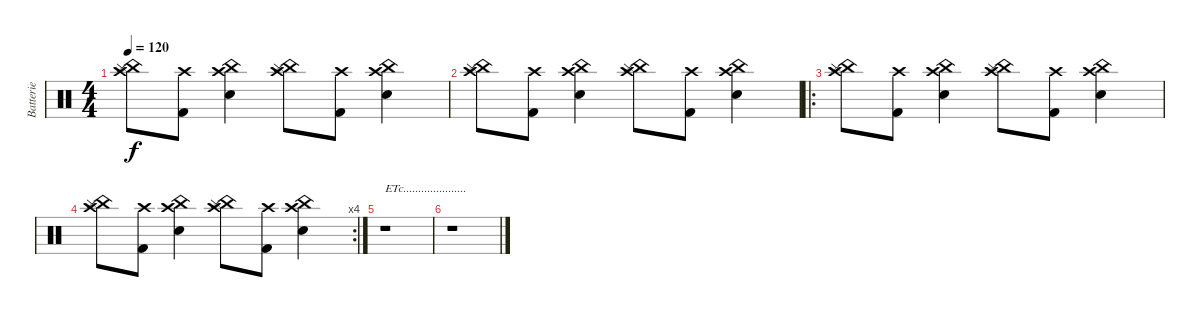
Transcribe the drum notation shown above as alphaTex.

\track ("Batterie" "Batterie") {instrument percussion}
\staff {score}
\articulation defaults
\ts (4 4)
\tempo 120
\clef neutral
\ks c
("China (hit)" "Crash high (hit)" "Cymbal (hit)").8{dy f} ("Crash high (hit)" "Kick (hit) 2").8 ("China (hit)" "Crash high (hit)" "Electric Snare (hit)").4 ("China (hit)" "Crash high (hit)" "Cymbal (hit)").8 ("Crash high (hit)" "Kick (hit) 2").8 ("China (hit)" "Crash high (hit)" "Electric Snare (hit)").4 |
("China (hit)" "Crash high (hit)" "Cymbal (hit)").8 ("Crash high (hit)" "Kick (hit) 2").8 ("China (hit)" "Crash high (hit)" "Electric Snare (hit)").4 ("China (hit)" "Crash high (hit)" "Cymbal (hit)").8 ("Crash high (hit)" "Kick (hit) 2").8 ("China (hit)" "Crash high (hit)" "Electric Snare (hit)").4 |
\ro
("China (hit)" "Crash high (hit)" "Cymbal (hit)").8 ("Crash high (hit)" "Kick (hit) 2").8 ("China (hit)" "Crash high (hit)" "Electric Snare (hit)").4 ("China (hit)" "Crash high (hit)" "Cymbal (hit)").8 ("Crash high (hit)" "Kick (hit) 2").8 ("China (hit)" "Crash high (hit)" "Electric Snare (hit)").4 |
\rc 4
("China (hit)" "Crash high (hit)" "Cymbal (hit)").8 ("Crash high (hit)" "Kick (hit) 2").8 ("China (hit)" "Crash high (hit)" "Electric Snare (hit)").4 ("China (hit)" "Crash high (hit)" "Cymbal (hit)").8 ("Crash high (hit)" "Kick (hit) 2").8 ("China (hit)" "Crash high (hit)" "Electric Snare (hit)").4 |
r.1{txt "ETc....................."} |
r.1
